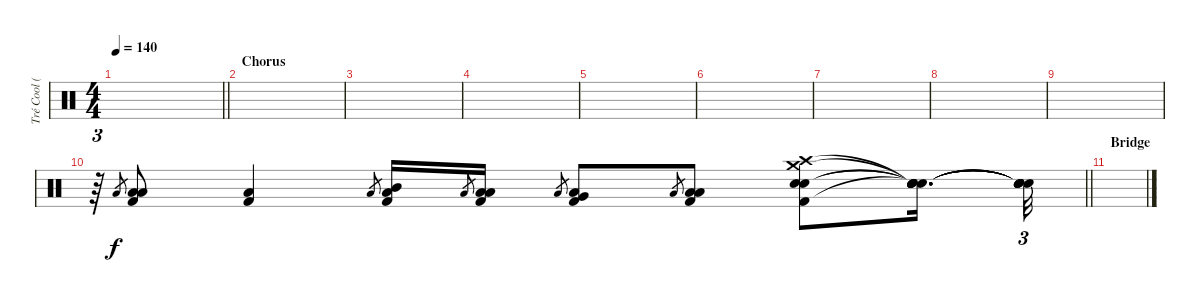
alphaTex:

\track ("Tré Cool (Bongos)" "Tré Cool (") {instrument percussion}
\staff {score}
\articulation defaults
\ts (4 4)
\tempo 140
\clef neutral
\barLineRight lightlight
\ks c
|
\section ("" "Chorus")
|
|
|
|
|
|
|
|
\barLineRight lightlight
r.64{tu (3 2)} "Low Tom (hit)".8{gr} ("Low Tom (hit)" "Low Tom (hit)" "Kick (hit) 2").8 ("Low Floor Tom (hit)" "Kick (hit) 2").4 "Low Tom (hit)".8{gr} ("Mid Tom (hit)" "Low Tom (hit)" "Kick (hit) 2").16 "Low Tom (hit)".8{gr} ("Low Tom (hit)" "Low Tom (hit)" "Kick (hit) 2").16 "Low Tom (hit)".8{gr} ("Very Low Tom (hit)" "Low Tom (hit)" "Kick (hit) 2").8 "Low Tom (hit)".8{gr} ("Low Floor Tom (hit)" "Low Tom (hit)" "Kick (hit) 2").8 ("Crash high (hit)" "Electric Snare (hit)" "Electric Snare (hit)" "Crash medium (hit)" "Kick (hit) 2").8 ("Snare (hit)"{t} "Snare (hit)"{t} "Snare (hit)"{t} "Snare (hit)"{t} "Snare (hit)"{t}).16{d} ("Snare (hit)"{t} "Snare (hit)"{t} "Snare (hit)"{t} "Snare (hit)"{t} "Snare (hit)"{t}).32{tu (3 2)} |
\section ("" "Bridge")
